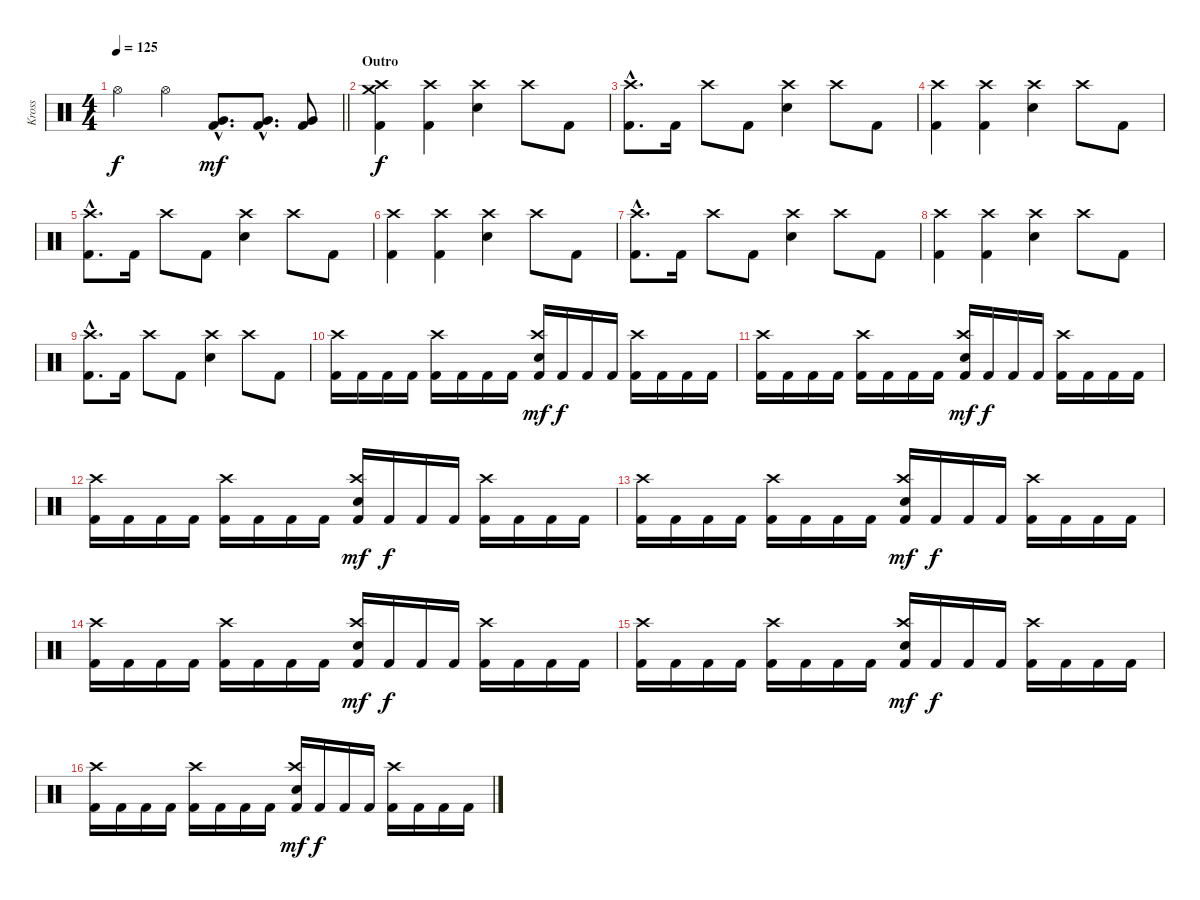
\track ("Kross" "Kross") {instrument percussion}
\staff {score}
\articulation defaults
\ts (4 4)
\tempo 125
\clef neutral
\barLineRight lightlight
\ks c "Hi-Hat (open)".4{dy f} "Hi-Hat (open)".4
("Very Low Tom (hit)"{hac} "Kick (hit) 2"{hac}).8{d dy mf} ("Very Low Tom (hit)"{hac} "Kick (hit) 2"{hac}).8{d} ("Very Low Tom (hit)" "Kick (hit) 2").8 |
\section ("" "Outro")
("Crash high (hit)" "Crash medium (hit)" "Kick (hit) 2").4{dy f} ("Crash high (hit)" "Kick (hit) 2").4 ("Crash high (hit)" "Snare (hit) 2").4 "Crash high (hit)".8 "Kick (hit) 2".8 |
("Crash high (hit)"{hac} "Kick (hit) 2"{hac}).8{d} "Kick (hit) 2".16 "Crash high (hit)".8 "Kick (hit) 2".8 ("Crash high (hit)" "Snare (hit) 2").4 "Crash high (hit)".8 "Kick (hit) 2".8 |
("Crash high (hit)" "Kick (hit) 2").4 ("Crash high (hit)" "Kick (hit) 2").4 ("Crash high (hit)" "Snare (hit) 2").4 "Crash high (hit)".8 "Kick (hit) 2".8 |
("Crash high (hit)"{hac} "Kick (hit) 2"{hac}).8{d} "Kick (hit) 2".16 "Crash high (hit)".8 "Kick (hit) 2".8 ("Crash high (hit)" "Snare (hit) 2").4 "Crash high (hit)".8 "Kick (hit) 2".8 |
("Crash high (hit)" "Kick (hit) 2").4 ("Crash high (hit)" "Kick (hit) 2").4 ("Crash high (hit)" "Snare (hit) 2").4 "Crash high (hit)".8 "Kick (hit) 2".8 |
("Crash high (hit)"{hac} "Kick (hit) 2"{hac}).8{d} "Kick (hit) 2".16 "Crash high (hit)".8 "Kick (hit) 2".8 ("Crash high (hit)" "Snare (hit) 2").4 "Crash high (hit)".8 "Kick (hit) 2".8 |
("Crash high (hit)" "Kick (hit) 2").4 ("Crash high (hit)" "Kick (hit) 2").4 ("Crash high (hit)" "Snare (hit) 2").4 "Crash high (hit)".8 "Kick (hit) 2".8 |
("Crash high (hit)"{hac} "Kick (hit) 2"{hac}).8{d} "Kick (hit) 2".16 "Crash high (hit)".8 "Kick (hit) 2".8 ("Crash high (hit)" "Snare (hit) 2").4 "Crash high (hit)".8 "Kick (hit) 2".8 |
("Crash high (hit)" "Kick (hit) 2").16 "Kick (hit) 2".16 "Kick (hit) 2".16 "Kick (hit) 2".16 ("Crash high (hit)" "Kick (hit) 2").16 "Kick (hit) 2".16 "Kick (hit) 2".16 "Kick (hit) 2".16 ("Crash high (hit)" "Snare (hit) 2" "Kick (hit) 2").16{dy mf} "Kick (hit) 2".16{dy f} "Kick (hit) 2".16 "Kick (hit) 2".16 ("Crash high (hit)" "Kick (hit) 2").16 "Kick (hit) 2".16 "Kick (hit) 2".16 "Kick (hit) 2".16 |
("Crash high (hit)" "Kick (hit) 2").16 "Kick (hit) 2".16 "Kick (hit) 2".16 "Kick (hit) 2".16 ("Crash high (hit)" "Kick (hit) 2").16 "Kick (hit) 2".16 "Kick (hit) 2".16 "Kick (hit) 2".16 ("Crash high (hit)" "Snare (hit) 2" "Kick (hit) 2").16{dy mf} "Kick (hit) 2".16{dy f} "Kick (hit) 2".16 "Kick (hit) 2".16 ("Crash high (hit)" "Kick (hit) 2").16 "Kick (hit) 2".16 "Kick (hit) 2".16 "Kick (hit) 2".16 |
("Crash high (hit)" "Kick (hit) 2").16 "Kick (hit) 2".16 "Kick (hit) 2".16 "Kick (hit) 2".16 ("Crash high (hit)" "Kick (hit) 2").16 "Kick (hit) 2".16 "Kick (hit) 2".16 "Kick (hit) 2".16 ("Crash high (hit)" "Snare (hit) 2" "Kick (hit) 2").16{dy mf} "Kick (hit) 2".16{dy f} "Kick (hit) 2".16 "Kick (hit) 2".16 ("Crash high (hit)" "Kick (hit) 2").16 "Kick (hit) 2".16 "Kick (hit) 2".16 "Kick (hit) 2".16 |
("Crash high (hit)" "Kick (hit) 2").16 "Kick (hit) 2".16 "Kick (hit) 2".16 "Kick (hit) 2".16 ("Crash high (hit)" "Kick (hit) 2").16 "Kick (hit) 2".16 "Kick (hit) 2".16 "Kick (hit) 2".16 ("Crash high (hit)" "Snare (hit) 2" "Kick (hit) 2").16{dy mf} "Kick (hit) 2".16{dy f} "Kick (hit) 2".16 "Kick (hit) 2".16 ("Crash high (hit)" "Kick (hit) 2").16 "Kick (hit) 2".16 "Kick (hit) 2".16 "Kick (hit) 2".16 |
("Crash high (hit)" "Kick (hit) 2").16 "Kick (hit) 2".16 "Kick (hit) 2".16 "Kick (hit) 2".16 ("Crash high (hit)" "Kick (hit) 2").16 "Kick (hit) 2".16 "Kick (hit) 2".16 "Kick (hit) 2".16 ("Crash high (hit)" "Snare (hit) 2" "Kick (hit) 2").16{dy mf} "Kick (hit) 2".16{dy f} "Kick (hit) 2".16 "Kick (hit) 2".16 ("Crash high (hit)" "Kick (hit) 2").16 "Kick (hit) 2".16 "Kick (hit) 2".16 "Kick (hit) 2".16 |
("Crash high (hit)" "Kick (hit) 2").16 "Kick (hit) 2".16 "Kick (hit) 2".16 "Kick (hit) 2".16 ("Crash high (hit)" "Kick (hit) 2").16 "Kick (hit) 2".16 "Kick (hit) 2".16 "Kick (hit) 2".16 ("Crash high (hit)" "Snare (hit) 2" "Kick (hit) 2").16{dy mf} "Kick (hit) 2".16{dy f} "Kick (hit) 2".16 "Kick (hit) 2".16 ("Crash high (hit)" "Kick (hit) 2").16 "Kick (hit) 2".16 "Kick (hit) 2".16 "Kick (hit) 2".16 |
("Crash high (hit)" "Kick (hit) 2").16 "Kick (hit) 2".16 "Kick (hit) 2".16 "Kick (hit) 2".16 ("Crash high (hit)" "Kick (hit) 2").16 "Kick (hit) 2".16 "Kick (hit) 2".16 "Kick (hit) 2".16 ("Crash high (hit)" "Snare (hit) 2" "Kick (hit) 2").16{dy mf} "Kick (hit) 2".16{dy f} "Kick (hit) 2".16 "Kick (hit) 2".16 ("Crash high (hit)" "Kick (hit) 2").16 "Kick (hit) 2".16 "Kick (hit) 2".16 "Kick (hit) 2".16
